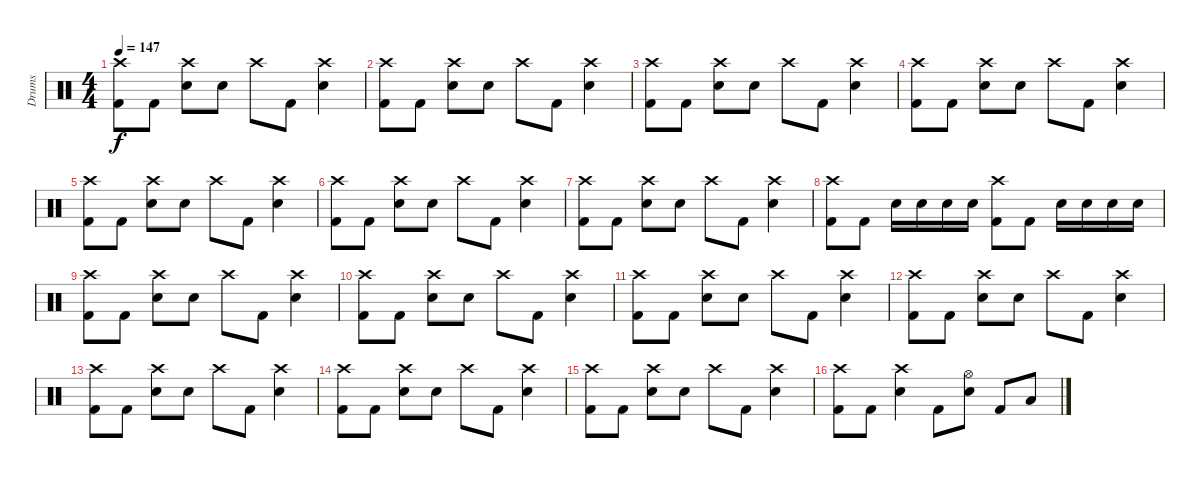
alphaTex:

\track ("Drums" "Drums") {instrument percussion}
\staff {score}
\articulation defaults
\ts (4 4)
\tempo 147
\clef neutral
\ks c
("Crash high (hit)" "Kick (hit) 2").8{dy f} "Kick (hit) 2".8 ("Crash high (hit)" "Electric Snare (hit)").8 "Electric Snare (hit)".8 "Crash high (hit)".8 "Kick (hit) 2".8 ("Crash high (hit)" "Electric Snare (hit)").4 |
("Crash high (hit)" "Kick (hit) 2").8 "Kick (hit) 2".8 ("Crash high (hit)" "Electric Snare (hit)").8 "Electric Snare (hit)".8 "Crash high (hit)".8 "Kick (hit) 2".8 ("Crash high (hit)" "Electric Snare (hit)").4 |
("Crash high (hit)" "Kick (hit) 2").8 "Kick (hit) 2".8 ("Crash high (hit)" "Electric Snare (hit)").8 "Electric Snare (hit)".8 "Crash high (hit)".8 "Kick (hit) 2".8 ("Crash high (hit)" "Electric Snare (hit)").4 |
("Crash high (hit)" "Kick (hit) 2").8 "Kick (hit) 2".8 ("Crash high (hit)" "Electric Snare (hit)").8 "Electric Snare (hit)".8 "Crash high (hit)".8 "Kick (hit) 2".8 ("Crash high (hit)" "Electric Snare (hit)").4 |
("Crash high (hit)" "Kick (hit) 2").8 "Kick (hit) 2".8 ("Crash high (hit)" "Electric Snare (hit)").8 "Electric Snare (hit)".8 "Crash high (hit)".8 "Kick (hit) 2".8 ("Crash high (hit)" "Electric Snare (hit)").4 |
("Crash high (hit)" "Kick (hit) 2").8 "Kick (hit) 2".8 ("Crash high (hit)" "Electric Snare (hit)").8 "Electric Snare (hit)".8 "Crash high (hit)".8 "Kick (hit) 2".8 ("Crash high (hit)" "Electric Snare (hit)").4 |
("Crash high (hit)" "Kick (hit) 2").8 "Kick (hit) 2".8 ("Crash high (hit)" "Electric Snare (hit)").8 "Electric Snare (hit)".8 "Crash high (hit)".8 "Kick (hit) 2".8 ("Crash high (hit)" "Electric Snare (hit)").4 |
("Crash high (hit)" "Kick (hit) 2").8 "Kick (hit) 2".8 "Electric Snare (hit)".16 "Electric Snare (hit)".16 "Electric Snare (hit)".16 "Electric Snare (hit)".16 ("Crash high (hit)" "Kick (hit) 2").8 "Kick (hit) 2".8 "Electric Snare (hit)".16 "Electric Snare (hit)".16 "Electric Snare (hit)".16 "Electric Snare (hit)".16 |
("Crash high (hit)" "Kick (hit) 2").8 "Kick (hit) 2".8 ("Crash high (hit)" "Electric Snare (hit)").8 "Electric Snare (hit)".8 "Crash high (hit)".8 "Kick (hit) 2".8 ("Crash high (hit)" "Electric Snare (hit)").4 |
("Crash high (hit)" "Kick (hit) 2").8 "Kick (hit) 2".8 ("Crash high (hit)" "Electric Snare (hit)").8 "Electric Snare (hit)".8 "Crash high (hit)".8 "Kick (hit) 2".8 ("Crash high (hit)" "Electric Snare (hit)").4 |
("Crash high (hit)" "Kick (hit) 2").8 "Kick (hit) 2".8 ("Crash high (hit)" "Electric Snare (hit)").8 "Electric Snare (hit)".8 "Crash high (hit)".8 "Kick (hit) 2".8 ("Crash high (hit)" "Electric Snare (hit)").4 |
("Crash high (hit)" "Kick (hit) 2").8 "Kick (hit) 2".8 ("Crash high (hit)" "Electric Snare (hit)").8 "Electric Snare (hit)".8 "Crash high (hit)".8 "Kick (hit) 2".8 ("Crash high (hit)" "Electric Snare (hit)").4 |
("Crash high (hit)" "Kick (hit) 2").8 "Kick (hit) 2".8 ("Crash high (hit)" "Electric Snare (hit)").8 "Electric Snare (hit)".8 "Crash high (hit)".8 "Kick (hit) 2".8 ("Crash high (hit)" "Electric Snare (hit)").4 |
("Crash high (hit)" "Kick (hit) 2").8 "Kick (hit) 2".8 ("Crash high (hit)" "Electric Snare (hit)").8 "Electric Snare (hit)".8 "Crash high (hit)".8 "Kick (hit) 2".8 ("Crash high (hit)" "Electric Snare (hit)").4 |
("Crash high (hit)" "Kick (hit) 2").8 "Kick (hit) 2".8 ("Crash high (hit)" "Electric Snare (hit)").8 "Electric Snare (hit)".8 "Crash high (hit)".8 "Kick (hit) 2".8 ("Crash high (hit)" "Electric Snare (hit)").4 |
("Crash high (hit)" "Kick (hit) 2").8 "Kick (hit) 2".8 ("Crash high (hit)" "Electric Snare (hit)").4 "Kick (hit) 2".8 ("Hi-Hat (open)" "Electric Snare (hit)").8 "Kick (hit) 2".8 "Low Tom (hit)".8
